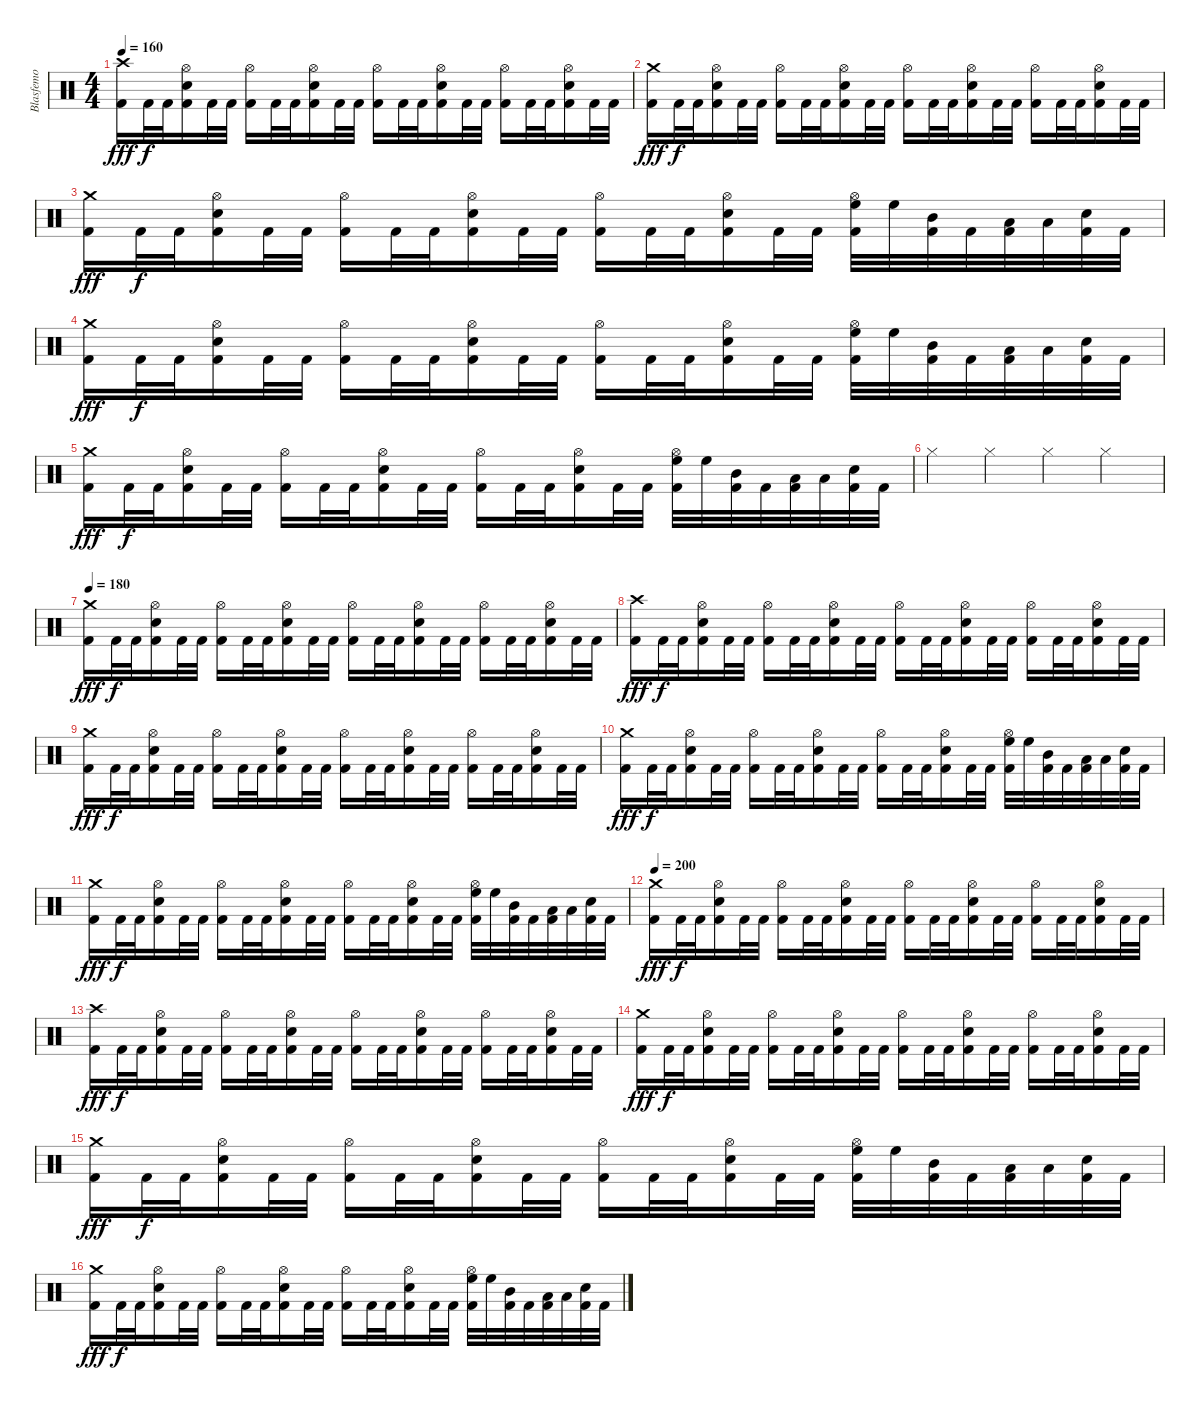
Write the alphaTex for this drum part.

\track ("Blasfemo" "Blasfemo") {instrument percussion}
\staff {score}
\articulation defaults
\ts (4 4)
\tempo 160
\clef neutral
\ks c
("Crash high (hit)" "Kick (hit) 2").16{dy fff} "Kick (hit) 2".32{dy f} "Kick (hit) 2".32 ("Hi-Hat (open)" "Electric Snare (hit)" "Kick (hit) 2").16 "Kick (hit) 2".32 "Kick (hit) 2".32 ("Hi-Hat (open)" "Kick (hit) 2").16 "Kick (hit) 2".32 "Kick (hit) 2".32 ("Hi-Hat (open)" "Electric Snare (hit)" "Kick (hit) 2").16 "Kick (hit) 2".32 "Kick (hit) 2".32 ("Hi-Hat (open)" "Kick (hit) 2").16 "Kick (hit) 2".32 "Kick (hit) 2".32 ("Hi-Hat (open)" "Electric Snare (hit)" "Kick (hit) 2").16 "Kick (hit) 2".32 "Kick (hit) 2".32 ("Hi-Hat (open)" "Kick (hit) 2").16 "Kick (hit) 2".32 "Kick (hit) 2".32 ("Hi-Hat (open)" "Electric Snare (hit)" "Kick (hit) 2").16 "Kick (hit) 2".32 "Kick (hit) 2".32 |
("Crash medium (hit)" "Kick (hit) 2").16{dy fff} "Kick (hit) 2".32{dy f} "Kick (hit) 2".32 ("Hi-Hat (open)" "Electric Snare (hit)" "Kick (hit) 2").16 "Kick (hit) 2".32 "Kick (hit) 2".32 ("Hi-Hat (open)" "Kick (hit) 2").16 "Kick (hit) 2".32 "Kick (hit) 2".32 ("Hi-Hat (open)" "Electric Snare (hit)" "Kick (hit) 2").16 "Kick (hit) 2".32 "Kick (hit) 2".32 ("Hi-Hat (open)" "Kick (hit) 2").16 "Kick (hit) 2".32 "Kick (hit) 2".32 ("Hi-Hat (open)" "Electric Snare (hit)" "Kick (hit) 2").16 "Kick (hit) 2".32 "Kick (hit) 2".32 ("Hi-Hat (open)" "Kick (hit) 2").16 "Kick (hit) 2".32 "Kick (hit) 2".32 ("Hi-Hat (open)" "Electric Snare (hit)" "Kick (hit) 2").16 "Kick (hit) 2".32 "Kick (hit) 2".32 |
("Crash medium (hit)" "Kick (hit) 2").16{dy fff} "Kick (hit) 2".32{dy f} "Kick (hit) 2".32 ("Hi-Hat (open)" "Electric Snare (hit)" "Kick (hit) 2").16 "Kick (hit) 2".32 "Kick (hit) 2".32 ("Hi-Hat (open)" "Kick (hit) 2").16 "Kick (hit) 2".32 "Kick (hit) 2".32 ("Hi-Hat (open)" "Electric Snare (hit)" "Kick (hit) 2").16 "Kick (hit) 2".32 "Kick (hit) 2".32 ("Hi-Hat (open)" "Kick (hit) 2").16 "Kick (hit) 2".32 "Kick (hit) 2".32 ("Hi-Hat (open)" "Electric Snare (hit)" "Kick (hit) 2").16 "Kick (hit) 2".32 "Kick (hit) 2".32 ("Hi-Hat (open)" "High Floor Tom (hit)" "Kick (hit) 2").32 "High Floor Tom (hit)".32 ("Mid Tom (hit)" "Kick (hit) 2").32 "Kick (hit) 2".32 ("Low Tom (hit)" "Kick (hit) 2").32 "Low Tom (hit)".32 ("Electric Snare (hit)" "Kick (hit) 2").32 "Kick (hit) 2".32 |
("Crash medium (hit)" "Kick (hit) 2").16{dy fff} "Kick (hit) 2".32{dy f} "Kick (hit) 2".32 ("Hi-Hat (open)" "Electric Snare (hit)" "Kick (hit) 2").16 "Kick (hit) 2".32 "Kick (hit) 2".32 ("Hi-Hat (open)" "Kick (hit) 2").16 "Kick (hit) 2".32 "Kick (hit) 2".32 ("Hi-Hat (open)" "Electric Snare (hit)" "Kick (hit) 2").16 "Kick (hit) 2".32 "Kick (hit) 2".32 ("Hi-Hat (open)" "Kick (hit) 2").16 "Kick (hit) 2".32 "Kick (hit) 2".32 ("Hi-Hat (open)" "Electric Snare (hit)" "Kick (hit) 2").16 "Kick (hit) 2".32 "Kick (hit) 2".32 ("Hi-Hat (open)" "High Floor Tom (hit)" "Kick (hit) 2").32 "High Floor Tom (hit)".32 ("Mid Tom (hit)" "Kick (hit) 2").32 "Kick (hit) 2".32 ("Low Tom (hit)" "Kick (hit) 2").32 "Low Tom (hit)".32 ("Electric Snare (hit)" "Kick (hit) 2").32 "Kick (hit) 2".32 |
("Crash medium (hit)" "Kick (hit) 2").16{dy fff} "Kick (hit) 2".32{dy f} "Kick (hit) 2".32 ("Hi-Hat (open)" "Electric Snare (hit)" "Kick (hit) 2").16 "Kick (hit) 2".32 "Kick (hit) 2".32 ("Hi-Hat (open)" "Kick (hit) 2").16 "Kick (hit) 2".32 "Kick (hit) 2".32 ("Hi-Hat (open)" "Electric Snare (hit)" "Kick (hit) 2").16 "Kick (hit) 2".32 "Kick (hit) 2".32 ("Hi-Hat (open)" "Kick (hit) 2").16 "Kick (hit) 2".32 "Kick (hit) 2".32 ("Hi-Hat (open)" "Electric Snare (hit)" "Kick (hit) 2").16 "Kick (hit) 2".32 "Kick (hit) 2".32 ("Hi-Hat (open)" "High Floor Tom (hit)" "Kick (hit) 2").32 "High Floor Tom (hit)".32 ("Mid Tom (hit)" "Kick (hit) 2").32 "Kick (hit) 2".32 ("Low Tom (hit)" "Kick (hit) 2").32 "Low Tom (hit)".32 ("Electric Snare (hit)" "Kick (hit) 2").32 "Kick (hit) 2".32 |
"Hi-Hat (closed)".4 "Hi-Hat (closed)".4 "Hi-Hat (closed)".4 "Hi-Hat (closed)".4 |
\tempo 180
("Crash medium (hit)" "Kick (hit) 2").16{dy fff volume 6} "Kick (hit) 2".32{dy f} "Kick (hit) 2".32 ("Hi-Hat (open)" "Electric Snare (hit)" "Kick (hit) 2").16 "Kick (hit) 2".32 "Kick (hit) 2".32 ("Hi-Hat (open)" "Kick (hit) 2").16 "Kick (hit) 2".32 "Kick (hit) 2".32 ("Hi-Hat (open)" "Electric Snare (hit)" "Kick (hit) 2").16 "Kick (hit) 2".32 "Kick (hit) 2".32 ("Hi-Hat (open)" "Kick (hit) 2").16 "Kick (hit) 2".32 "Kick (hit) 2".32 ("Hi-Hat (open)" "Electric Snare (hit)" "Kick (hit) 2").16 "Kick (hit) 2".32 "Kick (hit) 2".32 ("Hi-Hat (open)" "Kick (hit) 2").16 "Kick (hit) 2".32 "Kick (hit) 2".32 ("Hi-Hat (open)" "Electric Snare (hit)" "Kick (hit) 2").16 "Kick (hit) 2".32 "Kick (hit) 2".32 |
("Crash high (hit)" "Kick (hit) 2").16{dy fff} "Kick (hit) 2".32{dy f} "Kick (hit) 2".32 ("Hi-Hat (open)" "Electric Snare (hit)" "Kick (hit) 2").16 "Kick (hit) 2".32 "Kick (hit) 2".32 ("Hi-Hat (open)" "Kick (hit) 2").16 "Kick (hit) 2".32 "Kick (hit) 2".32 ("Hi-Hat (open)" "Electric Snare (hit)" "Kick (hit) 2").16 "Kick (hit) 2".32 "Kick (hit) 2".32 ("Hi-Hat (open)" "Kick (hit) 2").16 "Kick (hit) 2".32 "Kick (hit) 2".32 ("Hi-Hat (open)" "Electric Snare (hit)" "Kick (hit) 2").16 "Kick (hit) 2".32 "Kick (hit) 2".32 ("Hi-Hat (open)" "Kick (hit) 2").16 "Kick (hit) 2".32 "Kick (hit) 2".32 ("Hi-Hat (open)" "Electric Snare (hit)" "Kick (hit) 2").16 "Kick (hit) 2".32 "Kick (hit) 2".32 |
("Crash medium (hit)" "Kick (hit) 2").16{dy fff} "Kick (hit) 2".32{dy f} "Kick (hit) 2".32 ("Hi-Hat (open)" "Electric Snare (hit)" "Kick (hit) 2").16 "Kick (hit) 2".32 "Kick (hit) 2".32 ("Hi-Hat (open)" "Kick (hit) 2").16 "Kick (hit) 2".32 "Kick (hit) 2".32 ("Hi-Hat (open)" "Electric Snare (hit)" "Kick (hit) 2").16 "Kick (hit) 2".32 "Kick (hit) 2".32 ("Hi-Hat (open)" "Kick (hit) 2").16 "Kick (hit) 2".32 "Kick (hit) 2".32 ("Hi-Hat (open)" "Electric Snare (hit)" "Kick (hit) 2").16 "Kick (hit) 2".32 "Kick (hit) 2".32 ("Hi-Hat (open)" "Kick (hit) 2").16 "Kick (hit) 2".32 "Kick (hit) 2".32 ("Hi-Hat (open)" "Electric Snare (hit)" "Kick (hit) 2").16 "Kick (hit) 2".32 "Kick (hit) 2".32 |
("Crash medium (hit)" "Kick (hit) 2").16{dy fff} "Kick (hit) 2".32{dy f} "Kick (hit) 2".32 ("Hi-Hat (open)" "Electric Snare (hit)" "Kick (hit) 2").16 "Kick (hit) 2".32 "Kick (hit) 2".32 ("Hi-Hat (open)" "Kick (hit) 2").16 "Kick (hit) 2".32 "Kick (hit) 2".32 ("Hi-Hat (open)" "Electric Snare (hit)" "Kick (hit) 2").16 "Kick (hit) 2".32 "Kick (hit) 2".32 ("Hi-Hat (open)" "Kick (hit) 2").16 "Kick (hit) 2".32 "Kick (hit) 2".32 ("Hi-Hat (open)" "Electric Snare (hit)" "Kick (hit) 2").16 "Kick (hit) 2".32 "Kick (hit) 2".32 ("Hi-Hat (open)" "High Floor Tom (hit)" "Kick (hit) 2").32 "High Floor Tom (hit)".32 ("Mid Tom (hit)" "Kick (hit) 2").32 "Kick (hit) 2".32 ("Low Tom (hit)" "Kick (hit) 2").32 "Low Tom (hit)".32 ("Electric Snare (hit)" "Kick (hit) 2").32 "Kick (hit) 2".32 |
("Crash medium (hit)" "Kick (hit) 2").16{dy fff} "Kick (hit) 2".32{dy f} "Kick (hit) 2".32 ("Hi-Hat (open)" "Electric Snare (hit)" "Kick (hit) 2").16 "Kick (hit) 2".32 "Kick (hit) 2".32 ("Hi-Hat (open)" "Kick (hit) 2").16 "Kick (hit) 2".32 "Kick (hit) 2".32 ("Hi-Hat (open)" "Electric Snare (hit)" "Kick (hit) 2").16 "Kick (hit) 2".32 "Kick (hit) 2".32 ("Hi-Hat (open)" "Kick (hit) 2").16 "Kick (hit) 2".32 "Kick (hit) 2".32 ("Hi-Hat (open)" "Electric Snare (hit)" "Kick (hit) 2").16 "Kick (hit) 2".32 "Kick (hit) 2".32 ("Hi-Hat (open)" "High Floor Tom (hit)" "Kick (hit) 2").32 "High Floor Tom (hit)".32 ("Mid Tom (hit)" "Kick (hit) 2").32 "Kick (hit) 2".32 ("Low Tom (hit)" "Kick (hit) 2").32 "Low Tom (hit)".32 ("Electric Snare (hit)" "Kick (hit) 2").32 "Kick (hit) 2".32 |
\tempo 200
("Crash medium (hit)" "Kick (hit) 2").16{dy fff volume 0} "Kick (hit) 2".32{dy f} "Kick (hit) 2".32 ("Hi-Hat (open)" "Electric Snare (hit)" "Kick (hit) 2").16 "Kick (hit) 2".32 "Kick (hit) 2".32 ("Hi-Hat (open)" "Kick (hit) 2").16 "Kick (hit) 2".32 "Kick (hit) 2".32 ("Hi-Hat (open)" "Electric Snare (hit)" "Kick (hit) 2").16 "Kick (hit) 2".32 "Kick (hit) 2".32 ("Hi-Hat (open)" "Kick (hit) 2").16 "Kick (hit) 2".32 "Kick (hit) 2".32 ("Hi-Hat (open)" "Electric Snare (hit)" "Kick (hit) 2").16 "Kick (hit) 2".32 "Kick (hit) 2".32 ("Hi-Hat (open)" "Kick (hit) 2").16 "Kick (hit) 2".32 "Kick (hit) 2".32 ("Hi-Hat (open)" "Electric Snare (hit)" "Kick (hit) 2").16 "Kick (hit) 2".32 "Kick (hit) 2".32 |
("Crash high (hit)" "Kick (hit) 2").16{dy fff} "Kick (hit) 2".32{dy f} "Kick (hit) 2".32 ("Hi-Hat (open)" "Electric Snare (hit)" "Kick (hit) 2").16 "Kick (hit) 2".32 "Kick (hit) 2".32 ("Hi-Hat (open)" "Kick (hit) 2").16 "Kick (hit) 2".32 "Kick (hit) 2".32 ("Hi-Hat (open)" "Electric Snare (hit)" "Kick (hit) 2").16 "Kick (hit) 2".32 "Kick (hit) 2".32 ("Hi-Hat (open)" "Kick (hit) 2").16 "Kick (hit) 2".32 "Kick (hit) 2".32 ("Hi-Hat (open)" "Electric Snare (hit)" "Kick (hit) 2").16 "Kick (hit) 2".32 "Kick (hit) 2".32 ("Hi-Hat (open)" "Kick (hit) 2").16 "Kick (hit) 2".32 "Kick (hit) 2".32 ("Hi-Hat (open)" "Electric Snare (hit)" "Kick (hit) 2").16 "Kick (hit) 2".32 "Kick (hit) 2".32 |
("Crash medium (hit)" "Kick (hit) 2").16{dy fff} "Kick (hit) 2".32{dy f} "Kick (hit) 2".32 ("Hi-Hat (open)" "Electric Snare (hit)" "Kick (hit) 2").16 "Kick (hit) 2".32 "Kick (hit) 2".32 ("Hi-Hat (open)" "Kick (hit) 2").16 "Kick (hit) 2".32 "Kick (hit) 2".32 ("Hi-Hat (open)" "Electric Snare (hit)" "Kick (hit) 2").16 "Kick (hit) 2".32 "Kick (hit) 2".32 ("Hi-Hat (open)" "Kick (hit) 2").16 "Kick (hit) 2".32 "Kick (hit) 2".32 ("Hi-Hat (open)" "Electric Snare (hit)" "Kick (hit) 2").16 "Kick (hit) 2".32 "Kick (hit) 2".32 ("Hi-Hat (open)" "Kick (hit) 2").16 "Kick (hit) 2".32 "Kick (hit) 2".32 ("Hi-Hat (open)" "Electric Snare (hit)" "Kick (hit) 2").16 "Kick (hit) 2".32 "Kick (hit) 2".32 |
("Crash medium (hit)" "Kick (hit) 2").16{dy fff} "Kick (hit) 2".32{dy f} "Kick (hit) 2".32 ("Hi-Hat (open)" "Electric Snare (hit)" "Kick (hit) 2").16 "Kick (hit) 2".32 "Kick (hit) 2".32 ("Hi-Hat (open)" "Kick (hit) 2").16 "Kick (hit) 2".32 "Kick (hit) 2".32 ("Hi-Hat (open)" "Electric Snare (hit)" "Kick (hit) 2").16 "Kick (hit) 2".32 "Kick (hit) 2".32 ("Hi-Hat (open)" "Kick (hit) 2").16 "Kick (hit) 2".32 "Kick (hit) 2".32 ("Hi-Hat (open)" "Electric Snare (hit)" "Kick (hit) 2").16 "Kick (hit) 2".32 "Kick (hit) 2".32 ("Hi-Hat (open)" "High Floor Tom (hit)" "Kick (hit) 2").32 "High Floor Tom (hit)".32 ("Mid Tom (hit)" "Kick (hit) 2").32 "Kick (hit) 2".32 ("Low Tom (hit)" "Kick (hit) 2").32 "Low Tom (hit)".32 ("Electric Snare (hit)" "Kick (hit) 2").32 "Kick (hit) 2".32 |
("Crash medium (hit)" "Kick (hit) 2").16{dy fff} "Kick (hit) 2".32{dy f} "Kick (hit) 2".32 ("Hi-Hat (open)" "Electric Snare (hit)" "Kick (hit) 2").16 "Kick (hit) 2".32 "Kick (hit) 2".32 ("Hi-Hat (open)" "Kick (hit) 2").16 "Kick (hit) 2".32 "Kick (hit) 2".32 ("Hi-Hat (open)" "Electric Snare (hit)" "Kick (hit) 2").16 "Kick (hit) 2".32 "Kick (hit) 2".32 ("Hi-Hat (open)" "Kick (hit) 2").16 "Kick (hit) 2".32 "Kick (hit) 2".32 ("Hi-Hat (open)" "Electric Snare (hit)" "Kick (hit) 2").16 "Kick (hit) 2".32 "Kick (hit) 2".32 ("Hi-Hat (open)" "High Floor Tom (hit)" "Kick (hit) 2").32 "High Floor Tom (hit)".32 ("Mid Tom (hit)" "Kick (hit) 2").32 "Kick (hit) 2".32 ("Low Tom (hit)" "Kick (hit) 2").32 "Low Tom (hit)".32 ("Electric Snare (hit)" "Kick (hit) 2").32 "Kick (hit) 2".32
